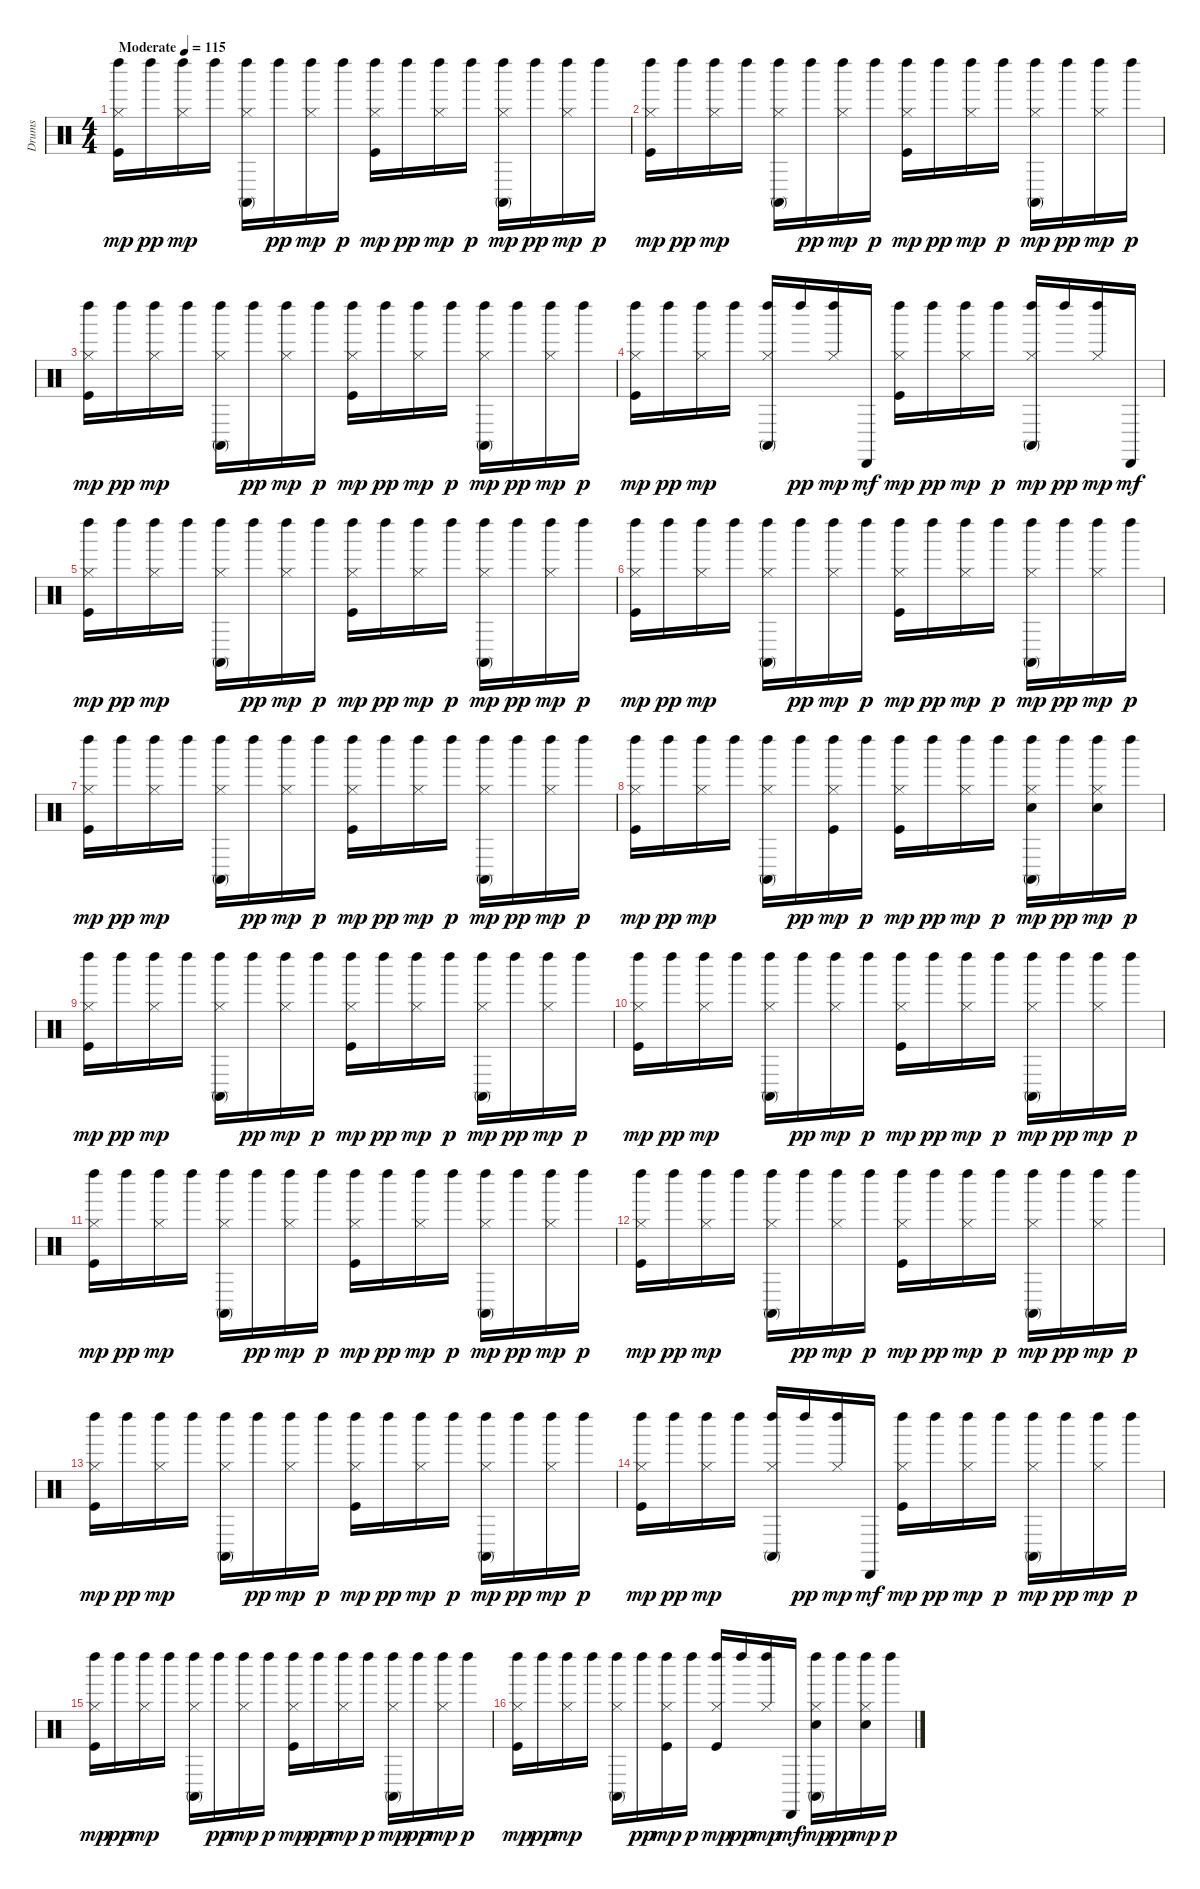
\track ("Drums" "Drums") {instrument percussion}
\staff {score}
\articulation defaults
\ts (4 4)
\tempo (115 "Moderate")
\clef neutral
\ks c
("Kick (hit)" "Hi-Hat (closed)" "Left Maraca (hit)").16{dy mp} "Left Maraca (hit)".16{dy pp} ("Hi-Hat (closed)" "Left Maraca (hit)").16{dy mp} "Left Maraca (hit)".16 ("Hi-Hat (closed)" "Conga high (mute)" "Left Maraca (hit)").16 "Left Maraca (hit)".16{dy pp} ("Hi-Hat (closed)" "Left Maraca (hit)").16{dy mp} "Left Maraca (hit)".16{dy p} ("Kick (hit)" "Hi-Hat (closed)" "Left Maraca (hit)").16{dy mp} "Left Maraca (hit)".16{dy pp} ("Hi-Hat (closed)" "Left Maraca (hit)").16{dy mp} "Left Maraca (hit)".16{dy p} ("Hi-Hat (closed)" "Conga high (mute)" "Left Maraca (hit)").16{dy mp} "Left Maraca (hit)".16{dy pp} ("Hi-Hat (closed)" "Left Maraca (hit)").16{dy mp} "Left Maraca (hit)".16{dy p} |
("Kick (hit)" "Hi-Hat (closed)" "Left Maraca (hit)").16{dy mp} "Left Maraca (hit)".16{dy pp} ("Hi-Hat (closed)" "Left Maraca (hit)").16{dy mp} "Left Maraca (hit)".16 ("Hi-Hat (closed)" "Conga high (mute)" "Left Maraca (hit)").16 "Left Maraca (hit)".16{dy pp} ("Hi-Hat (closed)" "Left Maraca (hit)").16{dy mp} "Left Maraca (hit)".16{dy p} ("Kick (hit)" "Hi-Hat (closed)" "Left Maraca (hit)").16{dy mp} "Left Maraca (hit)".16{dy pp} ("Hi-Hat (closed)" "Left Maraca (hit)").16{dy mp} "Left Maraca (hit)".16{dy p} ("Hi-Hat (closed)" "Conga high (mute)" "Left Maraca (hit)").16{dy mp} "Left Maraca (hit)".16{dy pp} ("Hi-Hat (closed)" "Left Maraca (hit)").16{dy mp} "Left Maraca (hit)".16{dy p} |
("Kick (hit)" "Hi-Hat (closed)" "Left Maraca (hit)").16{dy mp} "Left Maraca (hit)".16{dy pp} ("Hi-Hat (closed)" "Left Maraca (hit)").16{dy mp} "Left Maraca (hit)".16 ("Hi-Hat (closed)" "Conga high (mute)" "Left Maraca (hit)").16 "Left Maraca (hit)".16{dy pp} ("Hi-Hat (closed)" "Left Maraca (hit)").16{dy mp} "Left Maraca (hit)".16{dy p} ("Kick (hit)" "Hi-Hat (closed)" "Left Maraca (hit)").16{dy mp} "Left Maraca (hit)".16{dy pp} ("Hi-Hat (closed)" "Left Maraca (hit)").16{dy mp} "Left Maraca (hit)".16{dy p} ("Hi-Hat (closed)" "Conga high (mute)" "Left Maraca (hit)").16{dy mp} "Left Maraca (hit)".16{dy pp} ("Hi-Hat (closed)" "Left Maraca (hit)").16{dy mp} "Left Maraca (hit)".16{dy p} |
("Kick (hit)" "Hi-Hat (closed)" "Left Maraca (hit)").16{dy mp} "Left Maraca (hit)".16{dy pp} ("Hi-Hat (closed)" "Left Maraca (hit)").16{dy mp} "Left Maraca (hit)".16 ("Hi-Hat (closed)" "Conga high (mute)" "Left Maraca (hit)").16 "Left Maraca (hit)".16{dy pp} ("Hi-Hat (closed)" "Left Maraca (hit)").16{dy mp} "Cabasa (hit)".16{dy mf} ("Kick (hit)" "Hi-Hat (closed)" "Left Maraca (hit)").16{dy mp} "Left Maraca (hit)".16{dy pp} ("Hi-Hat (closed)" "Left Maraca (hit)").16{dy mp} "Left Maraca (hit)".16{dy p} ("Hi-Hat (closed)" "Conga high (mute)" "Left Maraca (hit)").16{dy mp} "Left Maraca (hit)".16{dy pp} ("Hi-Hat (closed)" "Left Maraca (hit)").16{dy mp} "Cabasa (hit)".16{dy mf} |
("Kick (hit)" "Hi-Hat (closed)" "Left Maraca (hit)").16{dy mp} "Left Maraca (hit)".16{dy pp} ("Hi-Hat (closed)" "Left Maraca (hit)").16{dy mp} "Left Maraca (hit)".16 ("Hi-Hat (closed)" "Conga high (mute)" "Left Maraca (hit)").16 "Left Maraca (hit)".16{dy pp} ("Hi-Hat (closed)" "Left Maraca (hit)").16{dy mp} "Left Maraca (hit)".16{dy p} ("Kick (hit)" "Hi-Hat (closed)" "Left Maraca (hit)").16{dy mp} "Left Maraca (hit)".16{dy pp} ("Hi-Hat (closed)" "Left Maraca (hit)").16{dy mp} "Left Maraca (hit)".16{dy p} ("Hi-Hat (closed)" "Conga high (mute)" "Left Maraca (hit)").16{dy mp} "Left Maraca (hit)".16{dy pp} ("Hi-Hat (closed)" "Left Maraca (hit)").16{dy mp} "Left Maraca (hit)".16{dy p} |
("Kick (hit)" "Hi-Hat (closed)" "Left Maraca (hit)").16{dy mp} "Left Maraca (hit)".16{dy pp} ("Hi-Hat (closed)" "Left Maraca (hit)").16{dy mp} "Left Maraca (hit)".16 ("Hi-Hat (closed)" "Conga high (mute)" "Left Maraca (hit)").16 "Left Maraca (hit)".16{dy pp} ("Hi-Hat (closed)" "Left Maraca (hit)").16{dy mp} "Left Maraca (hit)".16{dy p} ("Kick (hit)" "Hi-Hat (closed)" "Left Maraca (hit)").16{dy mp} "Left Maraca (hit)".16{dy pp} ("Hi-Hat (closed)" "Left Maraca (hit)").16{dy mp} "Left Maraca (hit)".16{dy p} ("Hi-Hat (closed)" "Conga high (mute)" "Left Maraca (hit)").16{dy mp} "Left Maraca (hit)".16{dy pp} ("Hi-Hat (closed)" "Left Maraca (hit)").16{dy mp} "Left Maraca (hit)".16{dy p} |
("Kick (hit)" "Hi-Hat (closed)" "Left Maraca (hit)").16{dy mp} "Left Maraca (hit)".16{dy pp} ("Hi-Hat (closed)" "Left Maraca (hit)").16{dy mp} "Left Maraca (hit)".16 ("Hi-Hat (closed)" "Conga high (mute)" "Left Maraca (hit)").16 "Left Maraca (hit)".16{dy pp} ("Hi-Hat (closed)" "Left Maraca (hit)").16{dy mp} "Left Maraca (hit)".16{dy p} ("Kick (hit)" "Hi-Hat (closed)" "Left Maraca (hit)").16{dy mp} "Left Maraca (hit)".16{dy pp} ("Hi-Hat (closed)" "Left Maraca (hit)").16{dy mp} "Left Maraca (hit)".16{dy p} ("Hi-Hat (closed)" "Conga high (mute)" "Left Maraca (hit)").16{dy mp} "Left Maraca (hit)".16{dy pp} ("Hi-Hat (closed)" "Left Maraca (hit)").16{dy mp} "Left Maraca (hit)".16{dy p} |
("Kick (hit)" "Hi-Hat (closed)" "Left Maraca (hit)").16{dy mp} "Left Maraca (hit)".16{dy pp} ("Hi-Hat (closed)" "Left Maraca (hit)").16{dy mp} "Left Maraca (hit)".16 ("Hi-Hat (closed)" "Conga high (mute)" "Left Maraca (hit)").16 "Left Maraca (hit)".16{dy pp} ("Kick (hit)" "Hi-Hat (closed)" "Left Maraca (hit)").16{dy mp} "Left Maraca (hit)".16{dy p} ("Kick (hit)" "Hi-Hat (closed)" "Left Maraca (hit)").16{dy mp} "Left Maraca (hit)".16{dy pp} ("Hi-Hat (closed)" "Left Maraca (hit)").16{dy mp} "Left Maraca (hit)".16{dy p} ("Snare (hit) 2" "Hi-Hat (closed)" "Conga high (mute)" "Left Maraca (hit)").16{dy mp} "Left Maraca (hit)".16{dy pp} ("Snare (hit) 2" "Hi-Hat (closed)" "Left Maraca (hit)").16{dy mp} "Left Maraca (hit)".16{dy p} |
("Kick (hit)" "Hi-Hat (closed)" "Left Maraca (hit)").16{dy mp} "Left Maraca (hit)".16{dy pp} ("Hi-Hat (closed)" "Left Maraca (hit)").16{dy mp} "Left Maraca (hit)".16 ("Hi-Hat (closed)" "Conga high (mute)" "Left Maraca (hit)").16 "Left Maraca (hit)".16{dy pp} ("Hi-Hat (closed)" "Left Maraca (hit)").16{dy mp} "Left Maraca (hit)".16{dy p} ("Kick (hit)" "Hi-Hat (closed)" "Left Maraca (hit)").16{dy mp} "Left Maraca (hit)".16{dy pp} ("Hi-Hat (closed)" "Left Maraca (hit)").16{dy mp} "Left Maraca (hit)".16{dy p} ("Hi-Hat (closed)" "Conga high (mute)" "Left Maraca (hit)").16{dy mp} "Left Maraca (hit)".16{dy pp} ("Hi-Hat (closed)" "Left Maraca (hit)").16{dy mp} "Left Maraca (hit)".16{dy p} |
("Kick (hit)" "Hi-Hat (closed)" "Left Maraca (hit)").16{dy mp} "Left Maraca (hit)".16{dy pp} ("Hi-Hat (closed)" "Left Maraca (hit)").16{dy mp} "Left Maraca (hit)".16 ("Hi-Hat (closed)" "Conga high (mute)" "Left Maraca (hit)").16 "Left Maraca (hit)".16{dy pp} ("Hi-Hat (closed)" "Left Maraca (hit)").16{dy mp} "Left Maraca (hit)".16{dy p} ("Kick (hit)" "Hi-Hat (closed)" "Left Maraca (hit)").16{dy mp} "Left Maraca (hit)".16{dy pp} ("Hi-Hat (closed)" "Left Maraca (hit)").16{dy mp} "Left Maraca (hit)".16{dy p} ("Hi-Hat (closed)" "Conga high (mute)" "Left Maraca (hit)").16{dy mp} "Left Maraca (hit)".16{dy pp} ("Hi-Hat (closed)" "Left Maraca (hit)").16{dy mp} "Left Maraca (hit)".16{dy p} |
("Kick (hit)" "Hi-Hat (closed)" "Left Maraca (hit)").16{dy mp} "Left Maraca (hit)".16{dy pp} ("Hi-Hat (closed)" "Left Maraca (hit)").16{dy mp} "Left Maraca (hit)".16 ("Hi-Hat (closed)" "Conga high (mute)" "Left Maraca (hit)").16 "Left Maraca (hit)".16{dy pp} ("Hi-Hat (closed)" "Left Maraca (hit)").16{dy mp} "Left Maraca (hit)".16{dy p} ("Kick (hit)" "Hi-Hat (closed)" "Left Maraca (hit)").16{dy mp} "Left Maraca (hit)".16{dy pp} ("Hi-Hat (closed)" "Left Maraca (hit)").16{dy mp} "Left Maraca (hit)".16{dy p} ("Hi-Hat (closed)" "Conga high (mute)" "Left Maraca (hit)").16{dy mp} "Left Maraca (hit)".16{dy pp} ("Hi-Hat (closed)" "Left Maraca (hit)").16{dy mp} "Left Maraca (hit)".16{dy p} |
("Kick (hit)" "Hi-Hat (closed)" "Left Maraca (hit)").16{dy mp} "Left Maraca (hit)".16{dy pp} ("Hi-Hat (closed)" "Left Maraca (hit)").16{dy mp} "Left Maraca (hit)".16 ("Hi-Hat (closed)" "Conga high (mute)" "Left Maraca (hit)").16 "Left Maraca (hit)".16{dy pp} ("Hi-Hat (closed)" "Left Maraca (hit)").16{dy mp} "Left Maraca (hit)".16{dy p} ("Kick (hit)" "Hi-Hat (closed)" "Left Maraca (hit)").16{dy mp} "Left Maraca (hit)".16{dy pp} ("Hi-Hat (closed)" "Left Maraca (hit)").16{dy mp} "Left Maraca (hit)".16{dy p} ("Hi-Hat (closed)" "Conga high (mute)" "Left Maraca (hit)").16{dy mp} "Left Maraca (hit)".16{dy pp} ("Hi-Hat (closed)" "Left Maraca (hit)").16{dy mp} "Left Maraca (hit)".16{dy p} |
("Kick (hit)" "Hi-Hat (closed)" "Left Maraca (hit)").16{dy mp} "Left Maraca (hit)".16{dy pp} ("Hi-Hat (closed)" "Left Maraca (hit)").16{dy mp} "Left Maraca (hit)".16 ("Hi-Hat (closed)" "Conga high (mute)" "Left Maraca (hit)").16 "Left Maraca (hit)".16{dy pp} ("Hi-Hat (closed)" "Left Maraca (hit)").16{dy mp} "Left Maraca (hit)".16{dy p} ("Kick (hit)" "Hi-Hat (closed)" "Left Maraca (hit)").16{dy mp} "Left Maraca (hit)".16{dy pp} ("Hi-Hat (closed)" "Left Maraca (hit)").16{dy mp} "Left Maraca (hit)".16{dy p} ("Hi-Hat (closed)" "Conga high (mute)" "Left Maraca (hit)").16{dy mp} "Left Maraca (hit)".16{dy pp} ("Hi-Hat (closed)" "Left Maraca (hit)").16{dy mp} "Left Maraca (hit)".16{dy p} |
("Kick (hit)" "Hi-Hat (closed)" "Left Maraca (hit)").16{dy mp} "Left Maraca (hit)".16{dy pp} ("Hi-Hat (closed)" "Left Maraca (hit)").16{dy mp} "Left Maraca (hit)".16 ("Hi-Hat (closed)" "Conga high (mute)" "Left Maraca (hit)").16 "Left Maraca (hit)".16{dy pp} ("Hi-Hat (closed)" "Left Maraca (hit)").16{dy mp} "Cabasa (hit)".16{dy mf} ("Kick (hit)" "Hi-Hat (closed)" "Left Maraca (hit)").16{dy mp} "Left Maraca (hit)".16{dy pp} ("Hi-Hat (closed)" "Left Maraca (hit)").16{dy mp} "Left Maraca (hit)".16{dy p} ("Hi-Hat (closed)" "Conga high (mute)" "Left Maraca (hit)").16{dy mp} "Left Maraca (hit)".16{dy pp} ("Hi-Hat (closed)" "Left Maraca (hit)").16{dy mp} "Left Maraca (hit)".16{dy p} |
("Kick (hit)" "Hi-Hat (closed)" "Left Maraca (hit)").16{dy mp} "Left Maraca (hit)".16{dy pp} ("Hi-Hat (closed)" "Left Maraca (hit)").16{dy mp} "Left Maraca (hit)".16 ("Hi-Hat (closed)" "Conga high (mute)" "Left Maraca (hit)").16 "Left Maraca (hit)".16{dy pp} ("Hi-Hat (closed)" "Left Maraca (hit)").16{dy mp} "Left Maraca (hit)".16{dy p} ("Kick (hit)" "Hi-Hat (closed)" "Left Maraca (hit)").16{dy mp} "Left Maraca (hit)".16{dy pp} ("Hi-Hat (closed)" "Left Maraca (hit)").16{dy mp} "Left Maraca (hit)".16{dy p} ("Hi-Hat (closed)" "Conga high (mute)" "Left Maraca (hit)").16{dy mp} "Left Maraca (hit)".16{dy pp} ("Hi-Hat (closed)" "Left Maraca (hit)").16{dy mp} "Left Maraca (hit)".16{dy p} |
("Kick (hit)" "Hi-Hat (closed)" "Left Maraca (hit)").16{dy mp} "Left Maraca (hit)".16{dy pp} ("Hi-Hat (closed)" "Left Maraca (hit)").16{dy mp} "Left Maraca (hit)".16 ("Hi-Hat (closed)" "Conga high (mute)" "Left Maraca (hit)").16 "Left Maraca (hit)".16{dy pp} ("Kick (hit)" "Hi-Hat (closed)" "Left Maraca (hit)").16{dy mp} "Left Maraca (hit)".16{dy p} ("Kick (hit)" "Hi-Hat (closed)" "Left Maraca (hit)").16{dy mp} "Left Maraca (hit)".16{dy pp} ("Hi-Hat (closed)" "Left Maraca (hit)").16{dy mp} "Cabasa (hit)".16{dy mf} ("Snare (hit) 2" "Hi-Hat (closed)" "Conga high (mute)" "Left Maraca (hit)").16{dy mp} "Left Maraca (hit)".16{dy pp} ("Snare (hit) 2" "Hi-Hat (closed)" "Left Maraca (hit)").16{dy mp} "Left Maraca (hit)".16{dy p}
